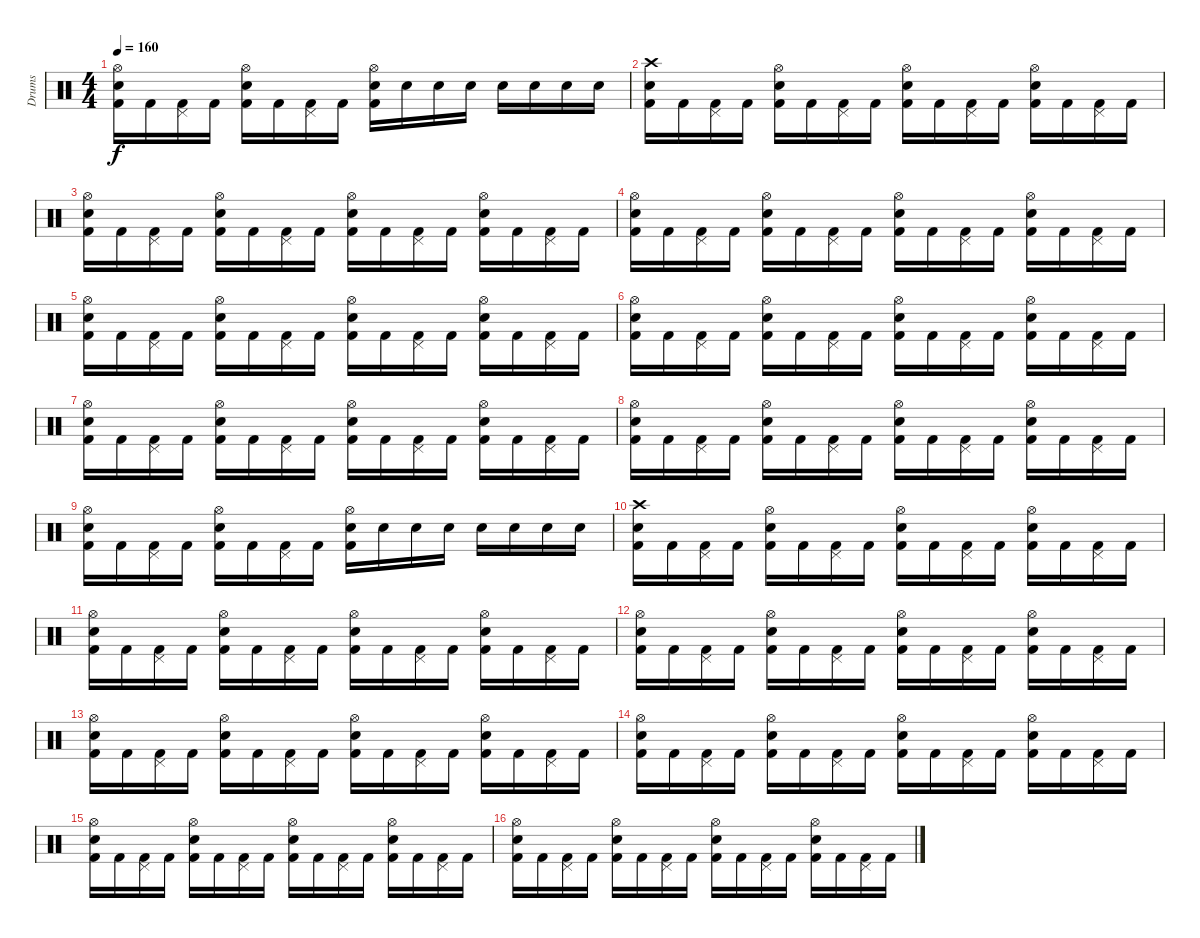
\track ("Drums" "Drums") {instrument percussion}
\staff {score}
\articulation defaults
\ts (4 4)
\tempo 160
\clef neutral
\ks c
("Hi-Hat (open)" "Electric Snare (hit)" "Kick (hit) 2").16{dy f} "Kick (hit) 2".16 ("Pedal Hi-Hat (hit)" "Kick (hit) 2").16 "Kick (hit) 2".16 ("Hi-Hat (open)" "Snare (hit) 2" "Kick (hit) 2").16 "Kick (hit) 2".16 ("Pedal Hi-Hat (hit)" "Kick (hit) 2").16 "Kick (hit) 2".16 ("Hi-Hat (open)" "Snare (hit) 2" "Kick (hit) 2").16 "Snare (hit) 2".16 "Snare (hit) 2".16 "Snare (hit) 2".16 "Snare (hit) 2".16 "Snare (hit) 2".16 "Snare (hit) 2".16 "Snare (hit) 2".16 |
("Crash high (hit)" "Electric Snare (hit)" "Kick (hit) 2").16 "Kick (hit) 2".16 ("Pedal Hi-Hat (hit)" "Kick (hit) 2").16 "Kick (hit) 2".16 ("Hi-Hat (open)" "Snare (hit) 2" "Kick (hit) 2").16 "Kick (hit) 2".16 ("Pedal Hi-Hat (hit)" "Kick (hit) 2").16 "Kick (hit) 2".16 ("Hi-Hat (open)" "Electric Snare (hit)" "Kick (hit) 2").16 "Kick (hit) 2".16 ("Pedal Hi-Hat (hit)" "Kick (hit) 2").16 "Kick (hit) 2".16 ("Hi-Hat (open)" "Snare (hit) 2" "Kick (hit) 2").16 "Kick (hit) 2".16 ("Pedal Hi-Hat (hit)" "Kick (hit) 2").16 "Kick (hit) 2".16 |
("Hi-Hat (open)" "Electric Snare (hit)" "Kick (hit) 2").16 "Kick (hit) 2".16 ("Pedal Hi-Hat (hit)" "Kick (hit) 2").16 "Kick (hit) 2".16 ("Hi-Hat (open)" "Snare (hit) 2" "Kick (hit) 2").16 "Kick (hit) 2".16 ("Pedal Hi-Hat (hit)" "Kick (hit) 2").16 "Kick (hit) 2".16 ("Hi-Hat (open)" "Electric Snare (hit)" "Kick (hit) 2").16 "Kick (hit) 2".16 ("Pedal Hi-Hat (hit)" "Kick (hit) 2").16 "Kick (hit) 2".16 ("Hi-Hat (open)" "Snare (hit) 2" "Kick (hit) 2").16 "Kick (hit) 2".16 ("Pedal Hi-Hat (hit)" "Kick (hit) 2").16 "Kick (hit) 2".16 |
("Hi-Hat (open)" "Electric Snare (hit)" "Kick (hit) 2").16 "Kick (hit) 2".16 ("Pedal Hi-Hat (hit)" "Kick (hit) 2").16 "Kick (hit) 2".16 ("Hi-Hat (open)" "Snare (hit) 2" "Kick (hit) 2").16 "Kick (hit) 2".16 ("Pedal Hi-Hat (hit)" "Kick (hit) 2").16 "Kick (hit) 2".16 ("Hi-Hat (open)" "Electric Snare (hit)" "Kick (hit) 2").16 "Kick (hit) 2".16 ("Pedal Hi-Hat (hit)" "Kick (hit) 2").16 "Kick (hit) 2".16 ("Hi-Hat (open)" "Snare (hit) 2" "Kick (hit) 2").16 "Kick (hit) 2".16 ("Pedal Hi-Hat (hit)" "Kick (hit) 2").16 "Kick (hit) 2".16 |
("Hi-Hat (open)" "Electric Snare (hit)" "Kick (hit) 2").16 "Kick (hit) 2".16 ("Pedal Hi-Hat (hit)" "Kick (hit) 2").16 "Kick (hit) 2".16 ("Hi-Hat (open)" "Snare (hit) 2" "Kick (hit) 2").16 "Kick (hit) 2".16 ("Pedal Hi-Hat (hit)" "Kick (hit) 2").16 "Kick (hit) 2".16 ("Hi-Hat (open)" "Electric Snare (hit)" "Kick (hit) 2").16 "Kick (hit) 2".16 ("Pedal Hi-Hat (hit)" "Kick (hit) 2").16 "Kick (hit) 2".16 ("Hi-Hat (open)" "Snare (hit) 2" "Kick (hit) 2").16 "Kick (hit) 2".16 ("Pedal Hi-Hat (hit)" "Kick (hit) 2").16 "Kick (hit) 2".16 |
("Hi-Hat (open)" "Electric Snare (hit)" "Kick (hit) 2").16 "Kick (hit) 2".16 ("Pedal Hi-Hat (hit)" "Kick (hit) 2").16 "Kick (hit) 2".16 ("Hi-Hat (open)" "Snare (hit) 2" "Kick (hit) 2").16 "Kick (hit) 2".16 ("Pedal Hi-Hat (hit)" "Kick (hit) 2").16 "Kick (hit) 2".16 ("Hi-Hat (open)" "Electric Snare (hit)" "Kick (hit) 2").16 "Kick (hit) 2".16 ("Pedal Hi-Hat (hit)" "Kick (hit) 2").16 "Kick (hit) 2".16 ("Hi-Hat (open)" "Snare (hit) 2" "Kick (hit) 2").16 "Kick (hit) 2".16 ("Pedal Hi-Hat (hit)" "Kick (hit) 2").16 "Kick (hit) 2".16 |
("Hi-Hat (open)" "Electric Snare (hit)" "Kick (hit) 2").16 "Kick (hit) 2".16 ("Pedal Hi-Hat (hit)" "Kick (hit) 2").16 "Kick (hit) 2".16 ("Hi-Hat (open)" "Snare (hit) 2" "Kick (hit) 2").16 "Kick (hit) 2".16 ("Pedal Hi-Hat (hit)" "Kick (hit) 2").16 "Kick (hit) 2".16 ("Hi-Hat (open)" "Electric Snare (hit)" "Kick (hit) 2").16 "Kick (hit) 2".16 ("Pedal Hi-Hat (hit)" "Kick (hit) 2").16 "Kick (hit) 2".16 ("Hi-Hat (open)" "Snare (hit) 2" "Kick (hit) 2").16 "Kick (hit) 2".16 ("Pedal Hi-Hat (hit)" "Kick (hit) 2").16 "Kick (hit) 2".16 |
("Hi-Hat (open)" "Electric Snare (hit)" "Kick (hit) 2").16 "Kick (hit) 2".16 ("Pedal Hi-Hat (hit)" "Kick (hit) 2").16 "Kick (hit) 2".16 ("Hi-Hat (open)" "Snare (hit) 2" "Kick (hit) 2").16 "Kick (hit) 2".16 ("Pedal Hi-Hat (hit)" "Kick (hit) 2").16 "Kick (hit) 2".16 ("Hi-Hat (open)" "Electric Snare (hit)" "Kick (hit) 2").16 "Kick (hit) 2".16 ("Pedal Hi-Hat (hit)" "Kick (hit) 2").16 "Kick (hit) 2".16 ("Hi-Hat (open)" "Snare (hit) 2" "Kick (hit) 2").16 "Kick (hit) 2".16 ("Pedal Hi-Hat (hit)" "Kick (hit) 2").16 "Kick (hit) 2".16 |
("Hi-Hat (open)" "Electric Snare (hit)" "Kick (hit) 2").16 "Kick (hit) 2".16 ("Pedal Hi-Hat (hit)" "Kick (hit) 2").16 "Kick (hit) 2".16 ("Hi-Hat (open)" "Snare (hit) 2" "Kick (hit) 2").16 "Kick (hit) 2".16 ("Pedal Hi-Hat (hit)" "Kick (hit) 2").16 "Kick (hit) 2".16 ("Hi-Hat (open)" "Snare (hit) 2" "Kick (hit) 2").16 "Snare (hit) 2".16 "Snare (hit) 2".16 "Snare (hit) 2".16 "Snare (hit) 2".16 "Snare (hit) 2".16 "Snare (hit) 2".16 "Snare (hit) 2".16 |
("Crash high (hit)" "Electric Snare (hit)" "Kick (hit) 2").16 "Kick (hit) 2".16 ("Pedal Hi-Hat (hit)" "Kick (hit) 2").16 "Kick (hit) 2".16 ("Hi-Hat (open)" "Snare (hit) 2" "Kick (hit) 2").16 "Kick (hit) 2".16 ("Pedal Hi-Hat (hit)" "Kick (hit) 2").16 "Kick (hit) 2".16 ("Hi-Hat (open)" "Electric Snare (hit)" "Kick (hit) 2").16 "Kick (hit) 2".16 ("Pedal Hi-Hat (hit)" "Kick (hit) 2").16 "Kick (hit) 2".16 ("Hi-Hat (open)" "Snare (hit) 2" "Kick (hit) 2").16 "Kick (hit) 2".16 ("Pedal Hi-Hat (hit)" "Kick (hit) 2").16 "Kick (hit) 2".16 |
("Hi-Hat (open)" "Electric Snare (hit)" "Kick (hit) 2").16 "Kick (hit) 2".16 ("Pedal Hi-Hat (hit)" "Kick (hit) 2").16 "Kick (hit) 2".16 ("Hi-Hat (open)" "Snare (hit) 2" "Kick (hit) 2").16 "Kick (hit) 2".16 ("Pedal Hi-Hat (hit)" "Kick (hit) 2").16 "Kick (hit) 2".16 ("Hi-Hat (open)" "Electric Snare (hit)" "Kick (hit) 2").16 "Kick (hit) 2".16 ("Pedal Hi-Hat (hit)" "Kick (hit) 2").16 "Kick (hit) 2".16 ("Hi-Hat (open)" "Snare (hit) 2" "Kick (hit) 2").16 "Kick (hit) 2".16 ("Pedal Hi-Hat (hit)" "Kick (hit) 2").16 "Kick (hit) 2".16 |
("Hi-Hat (open)" "Electric Snare (hit)" "Kick (hit) 2").16{volume 6} "Kick (hit) 2".16 ("Pedal Hi-Hat (hit)" "Kick (hit) 2").16 "Kick (hit) 2".16 ("Hi-Hat (open)" "Snare (hit) 2" "Kick (hit) 2").16 "Kick (hit) 2".16 ("Pedal Hi-Hat (hit)" "Kick (hit) 2").16 "Kick (hit) 2".16 ("Hi-Hat (open)" "Electric Snare (hit)" "Kick (hit) 2").16 "Kick (hit) 2".16 ("Pedal Hi-Hat (hit)" "Kick (hit) 2").16 "Kick (hit) 2".16 ("Hi-Hat (open)" "Snare (hit) 2" "Kick (hit) 2").16 "Kick (hit) 2".16 ("Pedal Hi-Hat (hit)" "Kick (hit) 2").16 "Kick (hit) 2".16 |
("Hi-Hat (open)" "Electric Snare (hit)" "Kick (hit) 2").16 "Kick (hit) 2".16 ("Pedal Hi-Hat (hit)" "Kick (hit) 2").16 "Kick (hit) 2".16 ("Hi-Hat (open)" "Snare (hit) 2" "Kick (hit) 2").16 "Kick (hit) 2".16 ("Pedal Hi-Hat (hit)" "Kick (hit) 2").16 "Kick (hit) 2".16 ("Hi-Hat (open)" "Electric Snare (hit)" "Kick (hit) 2").16 "Kick (hit) 2".16 ("Pedal Hi-Hat (hit)" "Kick (hit) 2").16 "Kick (hit) 2".16 ("Hi-Hat (open)" "Snare (hit) 2" "Kick (hit) 2").16 "Kick (hit) 2".16 ("Pedal Hi-Hat (hit)" "Kick (hit) 2").16 "Kick (hit) 2".16 |
("Hi-Hat (open)" "Electric Snare (hit)" "Kick (hit) 2").16 "Kick (hit) 2".16 ("Pedal Hi-Hat (hit)" "Kick (hit) 2").16 "Kick (hit) 2".16 ("Hi-Hat (open)" "Snare (hit) 2" "Kick (hit) 2").16 "Kick (hit) 2".16 ("Pedal Hi-Hat (hit)" "Kick (hit) 2").16 "Kick (hit) 2".16 ("Hi-Hat (open)" "Electric Snare (hit)" "Kick (hit) 2").16 "Kick (hit) 2".16 ("Pedal Hi-Hat (hit)" "Kick (hit) 2").16 "Kick (hit) 2".16 ("Hi-Hat (open)" "Snare (hit) 2" "Kick (hit) 2").16 "Kick (hit) 2".16 ("Pedal Hi-Hat (hit)" "Kick (hit) 2").16 "Kick (hit) 2".16 |
("Hi-Hat (open)" "Electric Snare (hit)" "Kick (hit) 2").16 "Kick (hit) 2".16 ("Pedal Hi-Hat (hit)" "Kick (hit) 2").16 "Kick (hit) 2".16 ("Hi-Hat (open)" "Snare (hit) 2" "Kick (hit) 2").16 "Kick (hit) 2".16 ("Pedal Hi-Hat (hit)" "Kick (hit) 2").16 "Kick (hit) 2".16 ("Hi-Hat (open)" "Electric Snare (hit)" "Kick (hit) 2").16 "Kick (hit) 2".16 ("Pedal Hi-Hat (hit)" "Kick (hit) 2").16 "Kick (hit) 2".16 ("Hi-Hat (open)" "Snare (hit) 2" "Kick (hit) 2").16 "Kick (hit) 2".16 ("Pedal Hi-Hat (hit)" "Kick (hit) 2").16 "Kick (hit) 2".16 |
("Hi-Hat (open)" "Electric Snare (hit)" "Kick (hit) 2").16 "Kick (hit) 2".16 ("Pedal Hi-Hat (hit)" "Kick (hit) 2").16 "Kick (hit) 2".16 ("Hi-Hat (open)" "Snare (hit) 2" "Kick (hit) 2").16 "Kick (hit) 2".16 ("Pedal Hi-Hat (hit)" "Kick (hit) 2").16 "Kick (hit) 2".16 ("Hi-Hat (open)" "Electric Snare (hit)" "Kick (hit) 2").16 "Kick (hit) 2".16 ("Pedal Hi-Hat (hit)" "Kick (hit) 2").16 "Kick (hit) 2".16 ("Hi-Hat (open)" "Snare (hit) 2" "Kick (hit) 2").16 "Kick (hit) 2".16 ("Pedal Hi-Hat (hit)" "Kick (hit) 2").16 "Kick (hit) 2".16
